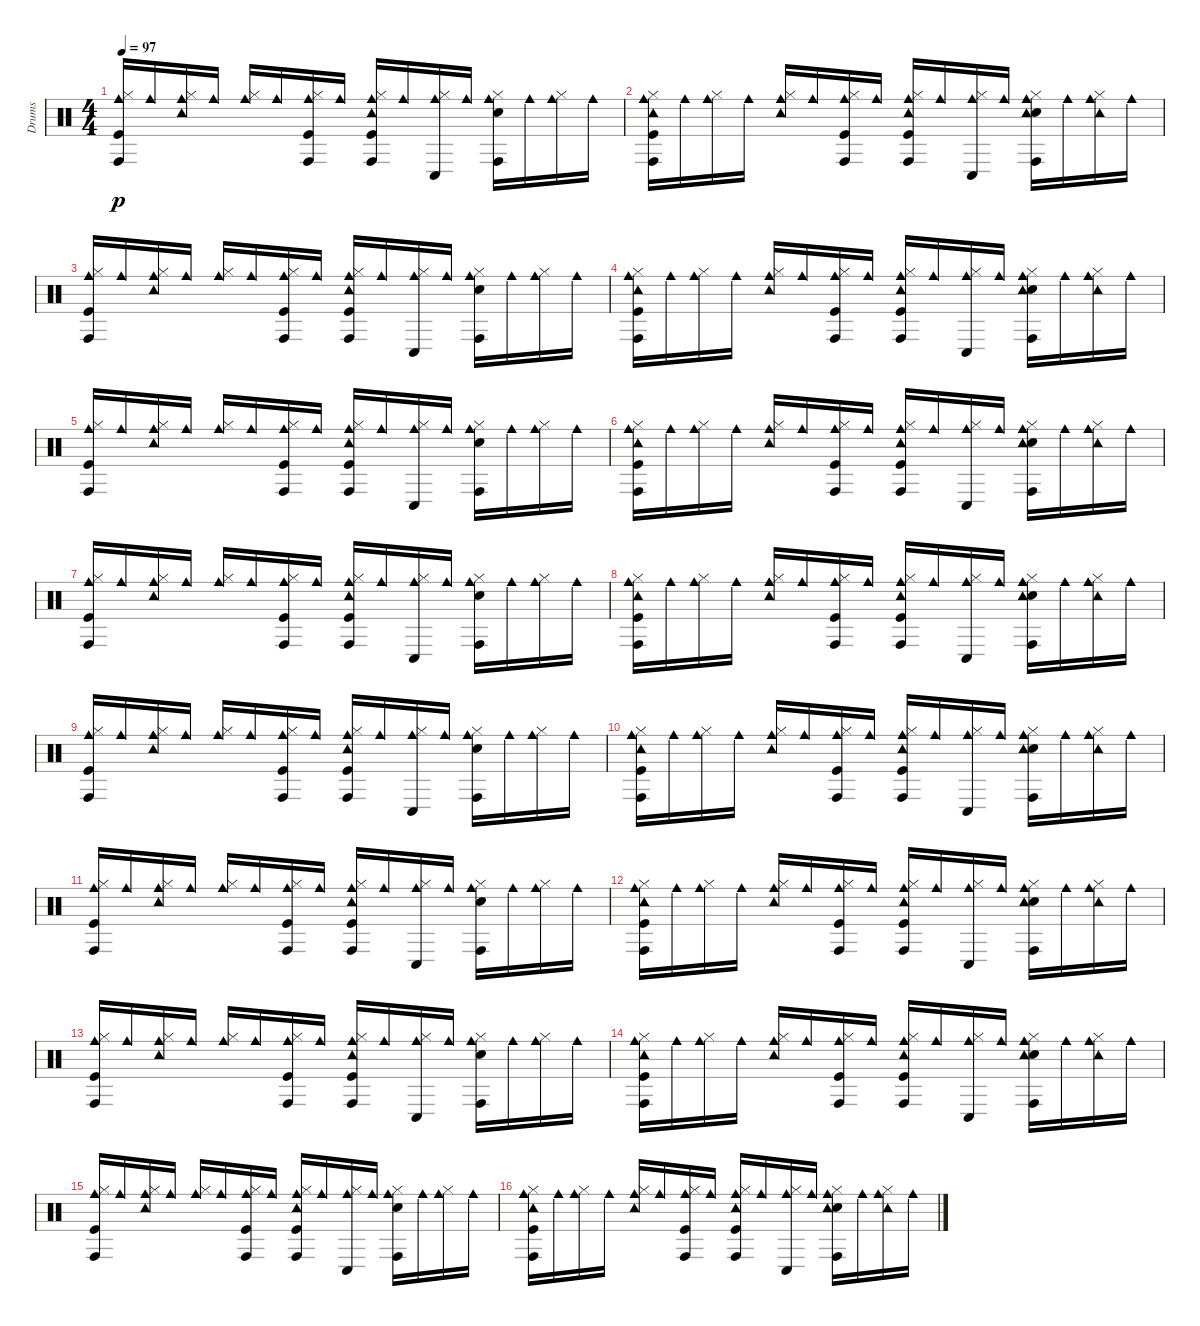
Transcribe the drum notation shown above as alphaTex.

\track ("Drums" "Drums") {instrument percussion}
\staff {score}
\articulation defaults
\ts (4 4)
\tempo 97
\clef neutral
\ks c
("Kick (hit)" "Hi-Hat (closed)" "Cowbell medium (hit)" "Conga high (hit)").16{dy p} "Cowbell medium (hit)".16 ("Hi-Hat (closed)" "Tambourine (hit)" "Cowbell medium (hit)").16 "Cowbell medium (hit)".16 ("Hi-Hat (closed)" "Cowbell medium (hit)").16 "Cowbell medium (hit)".16 ("Kick (hit)" "Hi-Hat (closed)" "Cowbell medium (hit)" "Conga high (hit)").16 "Cowbell medium (hit)".16 ("Kick (hit)" "Hi-Hat (closed)" "Tambourine (hit)" "Cowbell medium (hit)" "Conga high (hit)").16 "Cowbell medium (hit)".16 ("Conga low (hit)" "Hi-Hat (closed)" "Cowbell medium (hit)").16 "Cowbell medium (hit)".16 ("Conga high (hit)" "Snare (hit) 2" "Hi-Hat (closed)" "Cowbell medium (hit)").16 "Cowbell medium (hit)".16 ("Hi-Hat (closed)" "Cowbell medium (hit)").16 "Cowbell medium (hit)".16 |
("Kick (hit)" "Hi-Hat (closed)" "Tambourine (hit)" "Cowbell medium (hit)" "Conga high (hit)").16 "Cowbell medium (hit)".16 ("Hi-Hat (closed)" "Cowbell medium (hit)").16 "Cowbell medium (hit)".16 ("Hi-Hat (closed)" "Tambourine (hit)" "Cowbell medium (hit)").16 "Cowbell medium (hit)".16 ("Kick (hit)" "Hi-Hat (closed)" "Cowbell medium (hit)" "Conga high (hit)").16 "Cowbell medium (hit)".16 ("Kick (hit)" "Hi-Hat (closed)" "Tambourine (hit)" "Cowbell medium (hit)" "Conga high (hit)").16 "Cowbell medium (hit)".16 ("Conga low (hit)" "Hi-Hat (closed)" "Cowbell medium (hit)").16 "Cowbell medium (hit)".16 ("Conga high (hit)" "Snare (hit) 2" "Hi-Hat (closed)" "Tambourine (hit)" "Cowbell medium (hit)").16 "Cowbell medium (hit)".16 ("Hi-Hat (closed)" "Tambourine (hit)" "Cowbell medium (hit)").16 "Cowbell medium (hit)".16 |
("Kick (hit)" "Hi-Hat (closed)" "Cowbell medium (hit)" "Conga high (hit)").16 "Cowbell medium (hit)".16 ("Hi-Hat (closed)" "Tambourine (hit)" "Cowbell medium (hit)").16 "Cowbell medium (hit)".16 ("Hi-Hat (closed)" "Cowbell medium (hit)").16 "Cowbell medium (hit)".16 ("Kick (hit)" "Hi-Hat (closed)" "Cowbell medium (hit)" "Conga high (hit)").16 "Cowbell medium (hit)".16 ("Kick (hit)" "Hi-Hat (closed)" "Tambourine (hit)" "Cowbell medium (hit)" "Conga high (hit)").16 "Cowbell medium (hit)".16 ("Conga low (hit)" "Hi-Hat (closed)" "Cowbell medium (hit)").16 "Cowbell medium (hit)".16 ("Conga high (hit)" "Snare (hit) 2" "Hi-Hat (closed)" "Cowbell medium (hit)").16 "Cowbell medium (hit)".16 ("Hi-Hat (closed)" "Cowbell medium (hit)").16 "Cowbell medium (hit)".16 |
("Kick (hit)" "Hi-Hat (closed)" "Tambourine (hit)" "Cowbell medium (hit)" "Conga high (hit)").16 "Cowbell medium (hit)".16 ("Hi-Hat (closed)" "Cowbell medium (hit)").16 "Cowbell medium (hit)".16 ("Hi-Hat (closed)" "Tambourine (hit)" "Cowbell medium (hit)").16 "Cowbell medium (hit)".16 ("Kick (hit)" "Hi-Hat (closed)" "Cowbell medium (hit)" "Conga high (hit)").16 "Cowbell medium (hit)".16 ("Kick (hit)" "Hi-Hat (closed)" "Tambourine (hit)" "Cowbell medium (hit)" "Conga high (hit)").16 "Cowbell medium (hit)".16 ("Conga low (hit)" "Hi-Hat (closed)" "Cowbell medium (hit)").16 "Cowbell medium (hit)".16 ("Conga high (hit)" "Snare (hit) 2" "Hi-Hat (closed)" "Tambourine (hit)" "Cowbell medium (hit)").16 "Cowbell medium (hit)".16 ("Hi-Hat (closed)" "Tambourine (hit)" "Cowbell medium (hit)").16 "Cowbell medium (hit)".16 |
("Kick (hit)" "Hi-Hat (closed)" "Cowbell medium (hit)" "Conga high (hit)").16 "Cowbell medium (hit)".16 ("Hi-Hat (closed)" "Tambourine (hit)" "Cowbell medium (hit)").16 "Cowbell medium (hit)".16 ("Hi-Hat (closed)" "Cowbell medium (hit)").16 "Cowbell medium (hit)".16 ("Kick (hit)" "Hi-Hat (closed)" "Cowbell medium (hit)" "Conga high (hit)").16 "Cowbell medium (hit)".16 ("Kick (hit)" "Hi-Hat (closed)" "Tambourine (hit)" "Cowbell medium (hit)" "Conga high (hit)").16 "Cowbell medium (hit)".16 ("Conga low (hit)" "Hi-Hat (closed)" "Cowbell medium (hit)").16 "Cowbell medium (hit)".16 ("Conga high (hit)" "Snare (hit) 2" "Hi-Hat (closed)" "Cowbell medium (hit)").16 "Cowbell medium (hit)".16 ("Hi-Hat (closed)" "Cowbell medium (hit)").16 "Cowbell medium (hit)".16 |
("Kick (hit)" "Hi-Hat (closed)" "Tambourine (hit)" "Cowbell medium (hit)" "Conga high (hit)").16 "Cowbell medium (hit)".16 ("Hi-Hat (closed)" "Cowbell medium (hit)").16 "Cowbell medium (hit)".16 ("Hi-Hat (closed)" "Tambourine (hit)" "Cowbell medium (hit)").16 "Cowbell medium (hit)".16 ("Kick (hit)" "Hi-Hat (closed)" "Cowbell medium (hit)" "Conga high (hit)").16 "Cowbell medium (hit)".16 ("Kick (hit)" "Hi-Hat (closed)" "Tambourine (hit)" "Cowbell medium (hit)" "Conga high (hit)").16 "Cowbell medium (hit)".16 ("Conga low (hit)" "Hi-Hat (closed)" "Cowbell medium (hit)").16 "Cowbell medium (hit)".16 ("Conga high (hit)" "Snare (hit) 2" "Hi-Hat (closed)" "Tambourine (hit)" "Cowbell medium (hit)").16 "Cowbell medium (hit)".16 ("Hi-Hat (closed)" "Tambourine (hit)" "Cowbell medium (hit)").16 "Cowbell medium (hit)".16 |
("Kick (hit)" "Hi-Hat (closed)" "Cowbell medium (hit)" "Conga high (hit)").16 "Cowbell medium (hit)".16 ("Hi-Hat (closed)" "Tambourine (hit)" "Cowbell medium (hit)").16 "Cowbell medium (hit)".16 ("Hi-Hat (closed)" "Cowbell medium (hit)").16 "Cowbell medium (hit)".16 ("Kick (hit)" "Hi-Hat (closed)" "Cowbell medium (hit)" "Conga high (hit)").16 "Cowbell medium (hit)".16 ("Kick (hit)" "Hi-Hat (closed)" "Tambourine (hit)" "Cowbell medium (hit)" "Conga high (hit)").16 "Cowbell medium (hit)".16 ("Conga low (hit)" "Hi-Hat (closed)" "Cowbell medium (hit)").16 "Cowbell medium (hit)".16 ("Conga high (hit)" "Snare (hit) 2" "Hi-Hat (closed)" "Cowbell medium (hit)").16 "Cowbell medium (hit)".16 ("Hi-Hat (closed)" "Cowbell medium (hit)").16 "Cowbell medium (hit)".16 |
("Kick (hit)" "Hi-Hat (closed)" "Tambourine (hit)" "Cowbell medium (hit)" "Conga high (hit)").16 "Cowbell medium (hit)".16 ("Hi-Hat (closed)" "Cowbell medium (hit)").16 "Cowbell medium (hit)".16 ("Hi-Hat (closed)" "Tambourine (hit)" "Cowbell medium (hit)").16 "Cowbell medium (hit)".16 ("Kick (hit)" "Hi-Hat (closed)" "Cowbell medium (hit)" "Conga high (hit)").16 "Cowbell medium (hit)".16 ("Kick (hit)" "Hi-Hat (closed)" "Tambourine (hit)" "Cowbell medium (hit)" "Conga high (hit)").16 "Cowbell medium (hit)".16 ("Conga low (hit)" "Hi-Hat (closed)" "Cowbell medium (hit)").16 "Cowbell medium (hit)".16 ("Conga high (hit)" "Snare (hit) 2" "Hi-Hat (closed)" "Tambourine (hit)" "Cowbell medium (hit)").16 "Cowbell medium (hit)".16 ("Hi-Hat (closed)" "Tambourine (hit)" "Cowbell medium (hit)").16 "Cowbell medium (hit)".16 |
("Kick (hit)" "Hi-Hat (closed)" "Cowbell medium (hit)" "Conga high (hit)").16 "Cowbell medium (hit)".16 ("Hi-Hat (closed)" "Tambourine (hit)" "Cowbell medium (hit)").16 "Cowbell medium (hit)".16 ("Hi-Hat (closed)" "Cowbell medium (hit)").16 "Cowbell medium (hit)".16 ("Kick (hit)" "Hi-Hat (closed)" "Cowbell medium (hit)" "Conga high (hit)").16 "Cowbell medium (hit)".16 ("Kick (hit)" "Hi-Hat (closed)" "Tambourine (hit)" "Cowbell medium (hit)" "Conga high (hit)").16 "Cowbell medium (hit)".16 ("Conga low (hit)" "Hi-Hat (closed)" "Cowbell medium (hit)").16 "Cowbell medium (hit)".16 ("Conga high (hit)" "Snare (hit) 2" "Hi-Hat (closed)" "Cowbell medium (hit)").16 "Cowbell medium (hit)".16 ("Hi-Hat (closed)" "Cowbell medium (hit)").16 "Cowbell medium (hit)".16 |
("Kick (hit)" "Hi-Hat (closed)" "Tambourine (hit)" "Cowbell medium (hit)" "Conga high (hit)").16 "Cowbell medium (hit)".16 ("Hi-Hat (closed)" "Cowbell medium (hit)").16 "Cowbell medium (hit)".16 ("Hi-Hat (closed)" "Tambourine (hit)" "Cowbell medium (hit)").16 "Cowbell medium (hit)".16 ("Kick (hit)" "Hi-Hat (closed)" "Cowbell medium (hit)" "Conga high (hit)").16 "Cowbell medium (hit)".16 ("Kick (hit)" "Hi-Hat (closed)" "Tambourine (hit)" "Cowbell medium (hit)" "Conga high (hit)").16 "Cowbell medium (hit)".16 ("Conga low (hit)" "Hi-Hat (closed)" "Cowbell medium (hit)").16 "Cowbell medium (hit)".16 ("Conga high (hit)" "Snare (hit) 2" "Hi-Hat (closed)" "Tambourine (hit)" "Cowbell medium (hit)").16 "Cowbell medium (hit)".16 ("Hi-Hat (closed)" "Tambourine (hit)" "Cowbell medium (hit)").16 "Cowbell medium (hit)".16 |
("Kick (hit)" "Hi-Hat (closed)" "Cowbell medium (hit)" "Conga high (hit)").16 "Cowbell medium (hit)".16 ("Hi-Hat (closed)" "Tambourine (hit)" "Cowbell medium (hit)").16 "Cowbell medium (hit)".16 ("Hi-Hat (closed)" "Cowbell medium (hit)").16 "Cowbell medium (hit)".16 ("Kick (hit)" "Hi-Hat (closed)" "Cowbell medium (hit)" "Conga high (hit)").16 "Cowbell medium (hit)".16 ("Kick (hit)" "Hi-Hat (closed)" "Tambourine (hit)" "Cowbell medium (hit)" "Conga high (hit)").16 "Cowbell medium (hit)".16 ("Conga low (hit)" "Hi-Hat (closed)" "Cowbell medium (hit)").16 "Cowbell medium (hit)".16 ("Conga high (hit)" "Snare (hit) 2" "Hi-Hat (closed)" "Cowbell medium (hit)").16 "Cowbell medium (hit)".16 ("Hi-Hat (closed)" "Cowbell medium (hit)").16 "Cowbell medium (hit)".16 |
("Kick (hit)" "Hi-Hat (closed)" "Tambourine (hit)" "Cowbell medium (hit)" "Conga high (hit)").16 "Cowbell medium (hit)".16 ("Hi-Hat (closed)" "Cowbell medium (hit)").16 "Cowbell medium (hit)".16 ("Hi-Hat (closed)" "Tambourine (hit)" "Cowbell medium (hit)").16 "Cowbell medium (hit)".16 ("Kick (hit)" "Hi-Hat (closed)" "Cowbell medium (hit)" "Conga high (hit)").16 "Cowbell medium (hit)".16 ("Kick (hit)" "Hi-Hat (closed)" "Tambourine (hit)" "Cowbell medium (hit)" "Conga high (hit)").16 "Cowbell medium (hit)".16 ("Conga low (hit)" "Hi-Hat (closed)" "Cowbell medium (hit)").16 "Cowbell medium (hit)".16 ("Conga high (hit)" "Snare (hit) 2" "Hi-Hat (closed)" "Tambourine (hit)" "Cowbell medium (hit)").16 "Cowbell medium (hit)".16 ("Hi-Hat (closed)" "Tambourine (hit)" "Cowbell medium (hit)").16 "Cowbell medium (hit)".16 |
("Kick (hit)" "Hi-Hat (closed)" "Cowbell medium (hit)" "Conga high (hit)").16 "Cowbell medium (hit)".16 ("Hi-Hat (closed)" "Tambourine (hit)" "Cowbell medium (hit)").16 "Cowbell medium (hit)".16 ("Hi-Hat (closed)" "Cowbell medium (hit)").16 "Cowbell medium (hit)".16 ("Kick (hit)" "Hi-Hat (closed)" "Cowbell medium (hit)" "Conga high (hit)").16 "Cowbell medium (hit)".16 ("Kick (hit)" "Hi-Hat (closed)" "Tambourine (hit)" "Cowbell medium (hit)" "Conga high (hit)").16 "Cowbell medium (hit)".16 ("Conga low (hit)" "Hi-Hat (closed)" "Cowbell medium (hit)").16 "Cowbell medium (hit)".16 ("Conga high (hit)" "Snare (hit) 2" "Hi-Hat (closed)" "Cowbell medium (hit)").16 "Cowbell medium (hit)".16 ("Hi-Hat (closed)" "Cowbell medium (hit)").16 "Cowbell medium (hit)".16 |
("Kick (hit)" "Hi-Hat (closed)" "Tambourine (hit)" "Cowbell medium (hit)" "Conga high (hit)").16 "Cowbell medium (hit)".16 ("Hi-Hat (closed)" "Cowbell medium (hit)").16 "Cowbell medium (hit)".16 ("Hi-Hat (closed)" "Tambourine (hit)" "Cowbell medium (hit)").16 "Cowbell medium (hit)".16 ("Kick (hit)" "Hi-Hat (closed)" "Cowbell medium (hit)" "Conga high (hit)").16 "Cowbell medium (hit)".16 ("Kick (hit)" "Hi-Hat (closed)" "Tambourine (hit)" "Cowbell medium (hit)" "Conga high (hit)").16 "Cowbell medium (hit)".16 ("Conga low (hit)" "Hi-Hat (closed)" "Cowbell medium (hit)").16 "Cowbell medium (hit)".16 ("Conga high (hit)" "Snare (hit) 2" "Hi-Hat (closed)" "Tambourine (hit)" "Cowbell medium (hit)").16 "Cowbell medium (hit)".16 ("Hi-Hat (closed)" "Tambourine (hit)" "Cowbell medium (hit)").16 "Cowbell medium (hit)".16 |
("Kick (hit)" "Hi-Hat (closed)" "Cowbell medium (hit)" "Conga high (hit)").16 "Cowbell medium (hit)".16 ("Hi-Hat (closed)" "Tambourine (hit)" "Cowbell medium (hit)").16 "Cowbell medium (hit)".16 ("Hi-Hat (closed)" "Cowbell medium (hit)").16 "Cowbell medium (hit)".16 ("Kick (hit)" "Hi-Hat (closed)" "Cowbell medium (hit)" "Conga high (hit)").16 "Cowbell medium (hit)".16 ("Kick (hit)" "Hi-Hat (closed)" "Tambourine (hit)" "Cowbell medium (hit)" "Conga high (hit)").16 "Cowbell medium (hit)".16 ("Conga low (hit)" "Hi-Hat (closed)" "Cowbell medium (hit)").16 "Cowbell medium (hit)".16 ("Conga high (hit)" "Snare (hit) 2" "Hi-Hat (closed)" "Cowbell medium (hit)").16 "Cowbell medium (hit)".16 ("Hi-Hat (closed)" "Cowbell medium (hit)").16 "Cowbell medium (hit)".16 |
("Kick (hit)" "Hi-Hat (closed)" "Tambourine (hit)" "Cowbell medium (hit)" "Conga high (hit)").16 "Cowbell medium (hit)".16 ("Hi-Hat (closed)" "Cowbell medium (hit)").16 "Cowbell medium (hit)".16 ("Hi-Hat (closed)" "Tambourine (hit)" "Cowbell medium (hit)").16 "Cowbell medium (hit)".16 ("Kick (hit)" "Hi-Hat (closed)" "Cowbell medium (hit)" "Conga high (hit)").16 "Cowbell medium (hit)".16 ("Kick (hit)" "Hi-Hat (closed)" "Tambourine (hit)" "Cowbell medium (hit)" "Conga high (hit)").16 "Cowbell medium (hit)".16 ("Conga low (hit)" "Hi-Hat (closed)" "Cowbell medium (hit)").16 "Cowbell medium (hit)".16 ("Conga high (hit)" "Snare (hit) 2" "Hi-Hat (closed)" "Tambourine (hit)" "Cowbell medium (hit)").16 "Cowbell medium (hit)".16 ("Hi-Hat (closed)" "Tambourine (hit)" "Cowbell medium (hit)").16 "Cowbell medium (hit)".16
